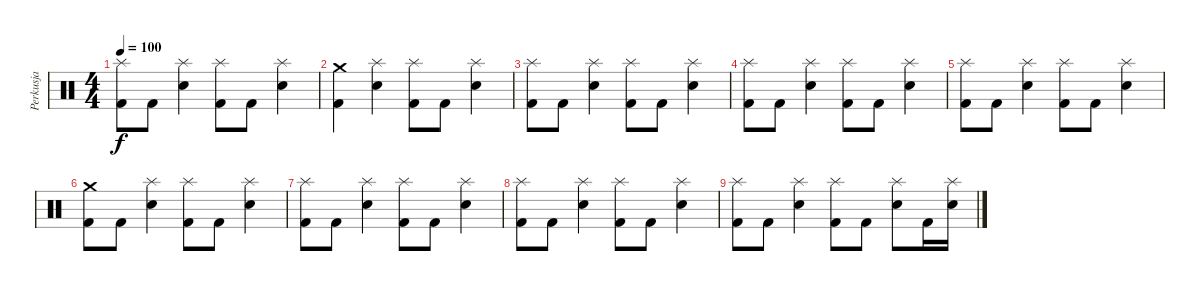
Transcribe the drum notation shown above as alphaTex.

\track ("Perkusja" "Perkusja") {instrument percussion}
\staff {score}
\articulation defaults
\ts (4 4)
\tempo 100
\clef neutral
\ks c
("Splash (hit)" "Kick (hit) 2").8{dy f} "Kick (hit) 2".8 ("Splash (hit)" "Snare (hit) 2").4 ("Splash (hit)" "Kick (hit) 2").8 "Kick (hit) 2".8 ("Splash (hit)" "Snare (hit) 2").4 |
("Crash medium (hit)" "Kick (hit) 2").4 ("Splash (hit)" "Snare (hit) 2").4 ("Splash (hit)" "Kick (hit) 2").8 "Kick (hit) 2".8 ("Splash (hit)" "Snare (hit) 2").4 |
("Splash (hit)" "Kick (hit) 2").8 "Kick (hit) 2".8 ("Splash (hit)" "Snare (hit) 2").4 ("Splash (hit)" "Kick (hit) 2").8 "Kick (hit) 2".8 ("Splash (hit)" "Snare (hit) 2").4 |
("Splash (hit)" "Kick (hit) 2").8 "Kick (hit) 2".8 ("Splash (hit)" "Snare (hit) 2").4 ("Splash (hit)" "Kick (hit) 2").8 "Kick (hit) 2".8 ("Splash (hit)" "Snare (hit) 2").4 |
("Splash (hit)" "Kick (hit) 2").8 "Kick (hit) 2".8 ("Splash (hit)" "Snare (hit) 2").4 ("Splash (hit)" "Kick (hit) 2").8 "Kick (hit) 2".8 ("Splash (hit)" "Snare (hit) 2").4 |
("Crash medium (hit)" "Kick (hit) 2").8 "Kick (hit) 2".8 ("Splash (hit)" "Snare (hit) 2").4 ("Splash (hit)" "Kick (hit) 2").8 "Kick (hit) 2".8 ("Splash (hit)" "Snare (hit) 2").4 |
("Splash (hit)" "Kick (hit) 2").8 "Kick (hit) 2".8 ("Splash (hit)" "Snare (hit) 2").4 ("Splash (hit)" "Kick (hit) 2").8 "Kick (hit) 2".8 ("Splash (hit)" "Snare (hit) 2").4 |
("Splash (hit)" "Kick (hit) 2").8 "Kick (hit) 2".8 ("Splash (hit)" "Snare (hit) 2").4 ("Splash (hit)" "Kick (hit) 2").8 "Kick (hit) 2".8 ("Splash (hit)" "Snare (hit) 2").4 |
("Splash (hit)" "Kick (hit) 2").8 "Kick (hit) 2".8 ("Splash (hit)" "Snare (hit) 2").4 ("Splash (hit)" "Kick (hit) 2").8 "Kick (hit) 2".8 ("Splash (hit)" "Snare (hit) 2").8 "Kick (hit) 2".16 ("Splash (hit)" "Snare (hit) 2").16
